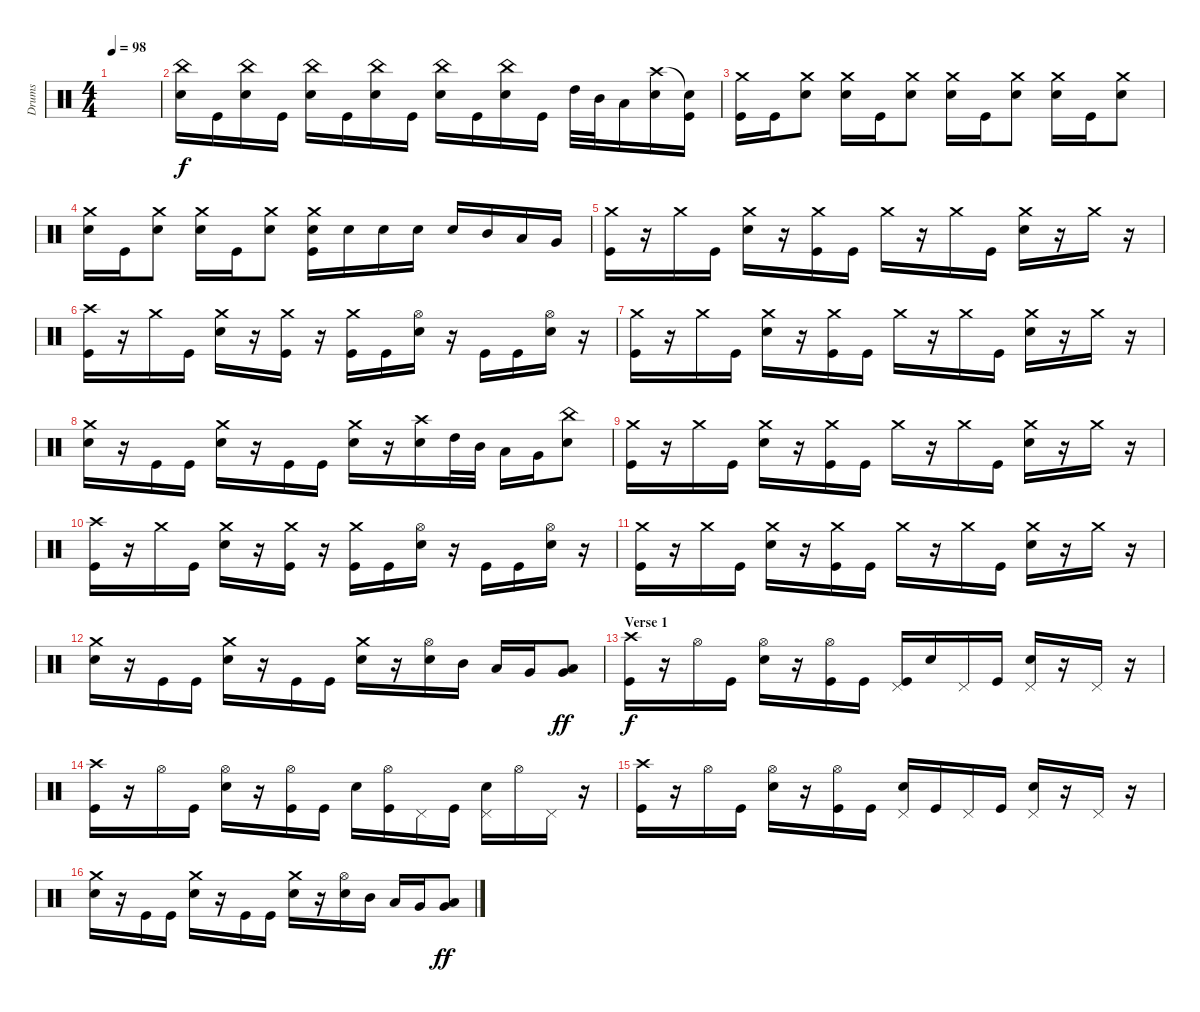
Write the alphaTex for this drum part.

\track ("Drums" "Drums") {instrument percussion}
\staff {score}
\articulation defaults
\ts (4 4)
\tempo 98
\clef neutral
\ks c
|
("China (hit)" "Electric Snare (hit)").16 "Kick (hit)".16 ("China (hit)" "Electric Snare (hit)").16 "Kick (hit)".16 ("China (hit)" "Electric Snare (hit)").16 "Kick (hit)".16 ("China (hit)" "Electric Snare (hit)").16 "Kick (hit)".16 ("China (hit)" "Electric Snare (hit)").16 "Kick (hit)".16 ("China (hit)" "Electric Snare (hit)").16 "Kick (hit)".16 "High Tom (hit)".32 "Mid Tom (hit)".32 "Low Tom (hit)".16 ("Crash high (hit)" "Electric Snare (hit)").16 ("Snare (hit)"{t} "Kick (hit)").16 |
("Crash medium (hit)" "Kick (hit)").16 "Kick (hit)".16 ("Crash medium (hit)" "Electric Snare (hit)").8 ("Crash medium (hit)" "Electric Snare (hit)").16 "Kick (hit)".16 ("Crash medium (hit)" "Electric Snare (hit)").8 ("Crash medium (hit)" "Electric Snare (hit)").16 "Kick (hit)".16 ("Crash medium (hit)" "Electric Snare (hit)").8 ("Crash medium (hit)" "Electric Snare (hit)").16 "Kick (hit)".16 ("Crash medium (hit)" "Electric Snare (hit)").8 |
("Crash medium (hit)" "Electric Snare (hit)").16 "Kick (hit)".16 ("Crash medium (hit)" "Electric Snare (hit)").8 ("Crash medium (hit)" "Electric Snare (hit)").16 "Kick (hit)".16 ("Crash medium (hit)" "Electric Snare (hit)").8 ("Crash medium (hit)" "Electric Snare (hit)" "Kick (hit)").16 "Electric Snare (hit)".16 "Electric Snare (hit)".16 "Electric Snare (hit)".16 "Electric Snare (hit)".16 "Mid Tom (hit)".16 "Low Tom (hit)".16 "Very Low Tom (hit)".16 |
("Crash medium (hit)" "Kick (hit)").16 r.16 "Crash medium (hit)".16 "Kick (hit)".16 ("Crash medium (hit)" "Electric Snare (hit)").16 r.16 ("Crash medium (hit)" "Kick (hit)").16 "Kick (hit)".16 "Crash medium (hit)".16 r.16 "Crash medium (hit)".16 "Kick (hit)".16 ("Crash medium (hit)" "Electric Snare (hit)").16 r.16 "Crash medium (hit)".16 r.16 |
("Crash high (hit)" "Kick (hit)").16 r.16 "Crash medium (hit)".16 "Kick (hit)".16 ("Crash medium (hit)" "Electric Snare (hit)").16 r.16 ("Crash medium (hit)" "Kick (hit)").16 r.16 ("Crash medium (hit)" "Kick (hit)").16 "Kick (hit)".16 ("Hi-Hat (open)" "Electric Snare (hit)").16 r.16 "Kick (hit)".16 "Kick (hit)".16 ("Hi-Hat (open)" "Electric Snare (hit)").16 r.16 |
("Crash medium (hit)" "Kick (hit)").16 r.16 "Crash medium (hit)".16 "Kick (hit)".16 ("Crash medium (hit)" "Electric Snare (hit)").16 r.16 ("Crash medium (hit)" "Kick (hit)").16 "Kick (hit)".16 "Crash medium (hit)".16 r.16 "Crash medium (hit)".16 "Kick (hit)".16 ("Crash medium (hit)" "Electric Snare (hit)").16 r.16 "Crash medium (hit)".16 r.16 |
("Crash medium (hit)" "Electric Snare (hit)").16 r.16 "Kick (hit)".16 "Kick (hit)".16 ("Crash medium (hit)" "Electric Snare (hit)").16 r.16 "Kick (hit)".16 "Kick (hit)".16 ("Crash medium (hit)" "Electric Snare (hit)").16 r.16 ("Crash high (hit)" "Electric Snare (hit)").16 "High Tom (hit)".32 "Mid Tom (hit)".32 "Low Tom (hit)".16 "Very Low Tom (hit)".16 ("China (hit)" "Electric Snare (hit)").8 |
("Crash medium (hit)" "Kick (hit)").16 r.16 "Crash medium (hit)".16 "Kick (hit)".16 ("Crash medium (hit)" "Electric Snare (hit)").16 r.16 ("Crash medium (hit)" "Kick (hit)").16 "Kick (hit)".16 "Crash medium (hit)".16 r.16 "Crash medium (hit)".16 "Kick (hit)".16 ("Crash medium (hit)" "Electric Snare (hit)").16 r.16 "Crash medium (hit)".16 r.16 |
("Crash high (hit)" "Kick (hit)").16 r.16 "Crash medium (hit)".16 "Kick (hit)".16 ("Crash medium (hit)" "Electric Snare (hit)").16 r.16 ("Crash medium (hit)" "Kick (hit)").16 r.16 ("Crash medium (hit)" "Kick (hit)").16 "Kick (hit)".16 ("Hi-Hat (open)" "Electric Snare (hit)").16 r.16 "Kick (hit)".16 "Kick (hit)".16 ("Hi-Hat (open)" "Electric Snare (hit)").16 r.16 |
("Crash medium (hit)" "Kick (hit)").16 r.16 "Crash medium (hit)".16 "Kick (hit)".16 ("Crash medium (hit)" "Electric Snare (hit)").16 r.16 ("Crash medium (hit)" "Kick (hit)").16 "Kick (hit)".16 "Crash medium (hit)".16 r.16 "Crash medium (hit)".16 "Kick (hit)".16 ("Crash medium (hit)" "Electric Snare (hit)").16 r.16 "Crash medium (hit)".16 r.16 |
("Crash medium (hit)" "Electric Snare (hit)").16 r.16 "Kick (hit)".16 "Kick (hit)".16 ("Crash medium (hit)" "Electric Snare (hit)").16 r.16 "Kick (hit)".16 "Kick (hit)".16 ("Crash medium (hit)" "Electric Snare (hit)").16 r.16 ("Hi-Hat (open)" "Electric Snare (hit)").16 "Mid Tom (hit)".16 "Low Tom (hit)".16 "Very Low Tom (hit)".16 ("Low Floor Tom (hit)" "Very Low Tom (hit)").8{dy ff} |
\section ("" "Verse 1")
("Crash high (hit)" "Kick (hit)").16{dy f} r.16 "Hi-Hat (open)".16 "Kick (hit)".16 ("Hi-Hat (open)" "Electric Snare (hit)").16 r.16 ("Hi-Hat (open)" "Kick (hit)").16 "Kick (hit)".16 ("Pedal Hi-Hat (hit)" "Kick (hit)").16 "Electric Snare (hit)".16 "Pedal Hi-Hat (hit)".16 "Kick (hit)".16 ("Pedal Hi-Hat (hit)" "Electric Snare (hit)").16 r.16 "Pedal Hi-Hat (hit)".16 r.16 |
("Crash high (hit)" "Kick (hit)").16 r.16 "Hi-Hat (open)".16 "Kick (hit)".16 ("Hi-Hat (open)" "Electric Snare (hit)").16 r.16 ("Hi-Hat (open)" "Kick (hit)").16 "Kick (hit)".16 "Electric Snare (hit)".16 ("Hi-Hat (open)" "Kick (hit)").16 "Pedal Hi-Hat (hit)".16 "Kick (hit)".16 ("Pedal Hi-Hat (hit)" "Electric Snare (hit)").16 "Hi-Hat (open)".16 "Pedal Hi-Hat (hit)".16 r.16 |
("Crash high (hit)" "Kick (hit)").16 r.16 "Hi-Hat (open)".16 "Kick (hit)".16 ("Hi-Hat (open)" "Electric Snare (hit)").16 r.16 ("Hi-Hat (open)" "Kick (hit)").16 "Kick (hit)".16 ("Pedal Hi-Hat (hit)" "Electric Snare (hit)").16 "Kick (hit)".16 "Pedal Hi-Hat (hit)".16 "Kick (hit)".16 ("Pedal Hi-Hat (hit)" "Electric Snare (hit)").16 r.16 "Pedal Hi-Hat (hit)".16 r.16 |
("Crash medium (hit)" "Electric Snare (hit)").16 r.16 "Kick (hit)".16 "Kick (hit)".16 ("Crash medium (hit)" "Electric Snare (hit)").16 r.16 "Kick (hit)".16 "Kick (hit)".16 ("Crash medium (hit)" "Electric Snare (hit)").16 r.16 ("Hi-Hat (open)" "Electric Snare (hit)").16 "Mid Tom (hit)".16 "Low Tom (hit)".16 "Very Low Tom (hit)".16 ("Low Floor Tom (hit)" "Very Low Tom (hit)").8{dy ff}
